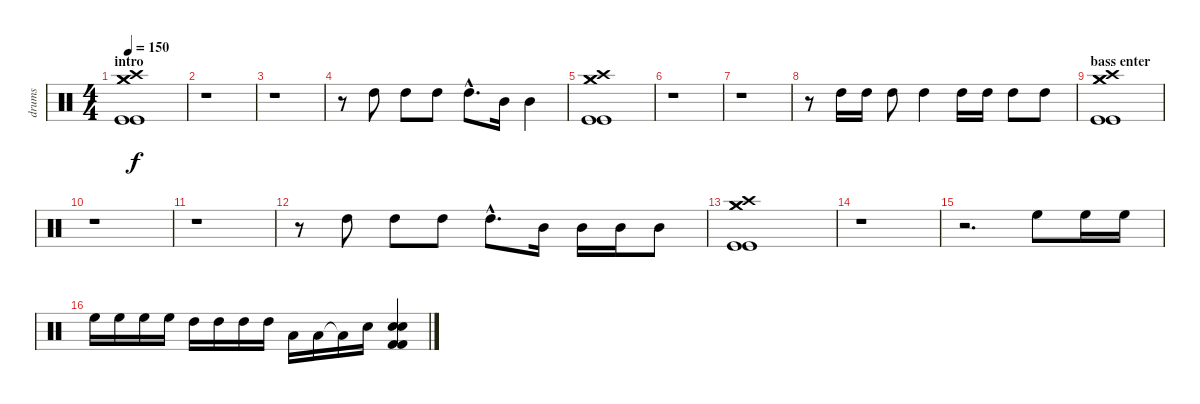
\track ("drums" "drums") {instrument percussion}
\staff {score}
\articulation defaults
\ts (4 4)
\section ("" "intro")
\tempo 150
\clef neutral
\ks c
("Crash high (hit)" "Kick (hit)" "Kick (hit)" "Crash medium (hit)" "Crash medium (hit)").1{dy f} |
r.1 |
r.1 |
r.8 "High Tom (hit)".8 "High Tom (hit)".8 "High Tom (hit)".8 "High Tom (hit)"{hac}.8{d} "Mid Tom (hit)".16 "Mid Tom (hit)".4 |
("Crash high (hit)" "Kick (hit)" "Kick (hit)" "Crash medium (hit)" "Crash medium (hit)").1 |
r.1 |
r.1 |
r.8 "High Tom (hit)".16 "High Tom (hit)".16 "High Tom (hit)".8 "High Tom (hit)".4 "High Tom (hit)".16 "High Tom (hit)".16 "High Tom (hit)".8 "High Tom (hit)".8 |
\section ("" "bass enter")
("Crash high (hit)" "Kick (hit)" "Kick (hit)" "Crash medium (hit)" "Crash medium (hit)").1 |
r.1 |
r.1 |
r.8 "High Tom (hit)".8 "High Tom (hit)".8 "High Tom (hit)".8 "High Tom (hit)"{hac}.8{d} "Mid Tom (hit)".16 "Mid Tom (hit)".16 "Mid Tom (hit)".16 "Mid Tom (hit)".8 |
("Crash high (hit)" "Kick (hit)" "Kick (hit)" "Crash medium (hit)" "Crash medium (hit)").1 |
r.1 |
r.2{d} "High Floor Tom (hit)".8 "High Floor Tom (hit)".16 "High Floor Tom (hit)".16 |
"High Floor Tom (hit)".16 "High Floor Tom (hit)".16 "High Floor Tom (hit)".16 "High Floor Tom (hit)".16 "High Tom (hit)".16 "High Tom (hit)".16 "High Tom (hit)".16 "High Tom (hit)".16 "Low Tom (hit)".16 "Low Tom (hit)".16 "Low Tom (hit)"{t}.16 "Snare (hit) 2".16 ("Kick (hit) 2" "Kick (hit) 2" "Snare (hit) 2" "Snare (hit) 2").4
